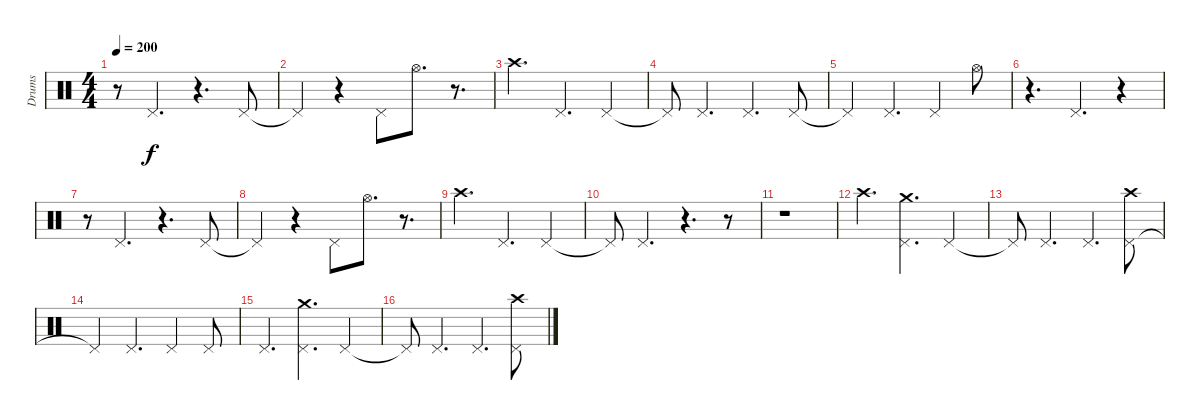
\track ("Drums" "Drums") {instrument percussion}
\staff {score}
\articulation defaults
\ts (4 4)
\tempo 200
\clef neutral
\ks c
r.8{dy f} "Pedal Hi-Hat (hit)".4{d} r.4{d} "Pedal Hi-Hat (hit)".8 |
"Pedal Hi-Hat (hit)"{t}.4 r.4 "Pedal Hi-Hat (hit)".8 "Hi-Hat (open)".8{d} r.8{d} |
"Crash high (hit)".4{d} "Pedal Hi-Hat (hit)".4{d} "Pedal Hi-Hat (hit)".4 |
"Pedal Hi-Hat (hit)"{t}.8 "Pedal Hi-Hat (hit)".4{d} "Pedal Hi-Hat (hit)".4{d} "Pedal Hi-Hat (hit)".8 |
"Pedal Hi-Hat (hit)"{t}.4 "Pedal Hi-Hat (hit)".4{d} "Pedal Hi-Hat (hit)".4 "Hi-Hat (open)".8 |
r.4{d} "Pedal Hi-Hat (hit)".4{d} r.4 |
r.8 "Pedal Hi-Hat (hit)".4{d} r.4{d} "Pedal Hi-Hat (hit)".8 |
"Pedal Hi-Hat (hit)"{t}.4 r.4 "Pedal Hi-Hat (hit)".8 "Hi-Hat (open)".8{d} r.8{d} |
"Crash high (hit)".4{d} "Pedal Hi-Hat (hit)".4{d} "Pedal Hi-Hat (hit)".4 |
"Pedal Hi-Hat (hit)"{t}.8 "Pedal Hi-Hat (hit)".4{d} r.4{d} r.8 |
r.1 |
"Crash high (hit)".4{d} ("Pedal Hi-Hat (hit)" "Crash medium (hit)").4{d} "Pedal Hi-Hat (hit)".4 |
"Pedal Hi-Hat (hit)"{t}.8 "Pedal Hi-Hat (hit)".4{d} "Pedal Hi-Hat (hit)".4{d} ("Pedal Hi-Hat (hit)" "Crash high (hit)").8 |
"Pedal Hi-Hat (hit)"{t}.4 "Pedal Hi-Hat (hit)".4{d} "Pedal Hi-Hat (hit)".4 "Pedal Hi-Hat (hit)".8 |
"Pedal Hi-Hat (hit)".4{d} ("Pedal Hi-Hat (hit)" "Crash medium (hit)").4{d} "Pedal Hi-Hat (hit)".4 |
"Pedal Hi-Hat (hit)"{t}.8 "Pedal Hi-Hat (hit)".4{d} "Pedal Hi-Hat (hit)".4{d} ("Pedal Hi-Hat (hit)" "Crash high (hit)").8
